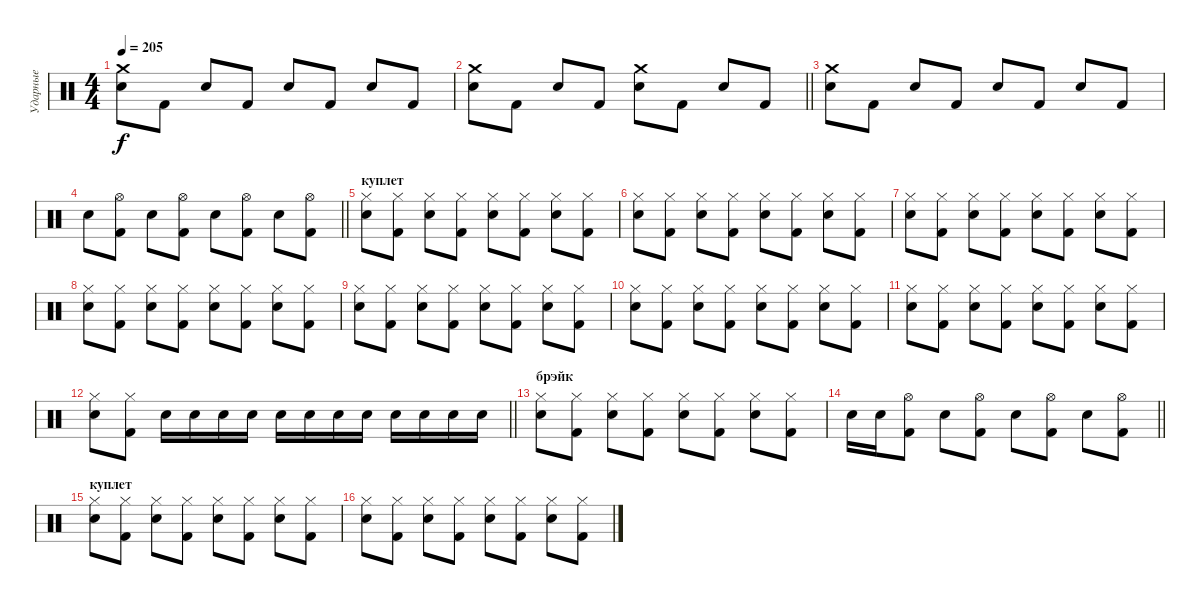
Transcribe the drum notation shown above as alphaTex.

\track ("Ударные" "Ударные") {instrument percussion}
\staff {score}
\articulation defaults
\ts (4 4)
\tempo 205
\clef neutral
\ks c
("Electric Snare (hit)" "Crash medium (hit)").8{dy f} "Kick (hit) 2".8 "Electric Snare (hit)".8 "Kick (hit) 2".8 "Electric Snare (hit)".8 "Kick (hit) 2".8 "Electric Snare (hit)".8 "Kick (hit) 2".8 |
\barLineRight lightlight
("Electric Snare (hit)" "Crash medium (hit)").8 "Kick (hit) 2".8 "Electric Snare (hit)".8 "Kick (hit) 2".8 ("Electric Snare (hit)" "Crash medium (hit)").8 "Kick (hit) 2".8 "Electric Snare (hit)".8 "Kick (hit) 2".8 |
("Electric Snare (hit)" "Crash medium (hit)").8 "Kick (hit) 2".8 "Electric Snare (hit)".8 "Kick (hit) 2".8 "Electric Snare (hit)".8 "Kick (hit) 2".8 "Electric Snare (hit)".8 "Kick (hit) 2".8 |
\barLineRight lightlight "Electric Snare (hit)".8
("Kick (hit) 2" "Hi-Hat (open)").8 "Electric Snare (hit)".8 ("Kick (hit) 2" "Hi-Hat (open)").8 "Electric Snare (hit)".8 ("Kick (hit) 2" "Hi-Hat (open)").8 "Electric Snare (hit)".8 ("Kick (hit) 2" "Hi-Hat (open)").8 |
\section ("" "куплет")
("Electric Snare (hit)" "Hi-Hat (closed)").8 ("Kick (hit) 2" "Hi-Hat (closed)").8 ("Electric Snare (hit)" "Hi-Hat (closed)").8 ("Kick (hit) 2" "Hi-Hat (closed)").8 ("Electric Snare (hit)" "Hi-Hat (closed)").8 ("Kick (hit) 2" "Hi-Hat (closed)").8 ("Electric Snare (hit)" "Hi-Hat (closed)").8 ("Kick (hit) 2" "Hi-Hat (closed)").8 |
("Electric Snare (hit)" "Hi-Hat (closed)").8 ("Kick (hit) 2" "Hi-Hat (closed)").8 ("Electric Snare (hit)" "Hi-Hat (closed)").8 ("Kick (hit) 2" "Hi-Hat (closed)").8 ("Electric Snare (hit)" "Hi-Hat (closed)").8 ("Kick (hit) 2" "Hi-Hat (closed)").8 ("Electric Snare (hit)" "Hi-Hat (closed)").8 ("Kick (hit) 2" "Hi-Hat (closed)").8 |
("Electric Snare (hit)" "Hi-Hat (closed)").8 ("Kick (hit) 2" "Hi-Hat (closed)").8 ("Electric Snare (hit)" "Hi-Hat (closed)").8 ("Kick (hit) 2" "Hi-Hat (closed)").8 ("Electric Snare (hit)" "Hi-Hat (closed)").8 ("Kick (hit) 2" "Hi-Hat (closed)").8 ("Electric Snare (hit)" "Hi-Hat (closed)").8 ("Kick (hit) 2" "Hi-Hat (closed)").8 |
("Electric Snare (hit)" "Hi-Hat (closed)").8 ("Kick (hit) 2" "Hi-Hat (closed)").8 ("Electric Snare (hit)" "Hi-Hat (closed)").8 ("Kick (hit) 2" "Hi-Hat (closed)").8 ("Electric Snare (hit)" "Hi-Hat (closed)").8 ("Kick (hit) 2" "Hi-Hat (closed)").8 ("Electric Snare (hit)" "Hi-Hat (closed)").8 ("Kick (hit) 2" "Hi-Hat (closed)").8 |
("Electric Snare (hit)" "Hi-Hat (closed)").8 ("Kick (hit) 2" "Hi-Hat (closed)").8 ("Electric Snare (hit)" "Hi-Hat (closed)").8 ("Kick (hit) 2" "Hi-Hat (closed)").8 ("Electric Snare (hit)" "Hi-Hat (closed)").8 ("Kick (hit) 2" "Hi-Hat (closed)").8 ("Electric Snare (hit)" "Hi-Hat (closed)").8 ("Kick (hit) 2" "Hi-Hat (closed)").8 |
("Electric Snare (hit)" "Hi-Hat (closed)").8 ("Kick (hit) 2" "Hi-Hat (closed)").8 ("Electric Snare (hit)" "Hi-Hat (closed)").8 ("Kick (hit) 2" "Hi-Hat (closed)").8 ("Electric Snare (hit)" "Hi-Hat (closed)").8 ("Kick (hit) 2" "Hi-Hat (closed)").8 ("Electric Snare (hit)" "Hi-Hat (closed)").8 ("Kick (hit) 2" "Hi-Hat (closed)").8 |
("Electric Snare (hit)" "Hi-Hat (closed)").8 ("Kick (hit) 2" "Hi-Hat (closed)").8 ("Electric Snare (hit)" "Hi-Hat (closed)").8 ("Kick (hit) 2" "Hi-Hat (closed)").8 ("Electric Snare (hit)" "Hi-Hat (closed)").8 ("Kick (hit) 2" "Hi-Hat (closed)").8 ("Electric Snare (hit)" "Hi-Hat (closed)").8 ("Kick (hit) 2" "Hi-Hat (closed)").8 |
\barLineRight lightlight
("Electric Snare (hit)" "Hi-Hat (closed)").8 ("Kick (hit) 2" "Hi-Hat (closed)").8 "Electric Snare (hit)".16 "Snare (hit) 2".16 "Electric Snare (hit)".16 "Snare (hit) 2".16 "Electric Snare (hit)".16 "Snare (hit) 2".16 "Electric Snare (hit)".16 "Snare (hit) 2".16 "Snare (hit)".16 "Snare (hit) 2".16 "Electric Snare (hit)".16 "Snare (hit) 2".16 |
\section ("" "брэйк")
("Electric Snare (hit)" "Hi-Hat (closed)").8 ("Kick (hit) 2" "Hi-Hat (closed)").8 ("Electric Snare (hit)" "Hi-Hat (closed)").8 ("Kick (hit) 2" "Hi-Hat (closed)").8 ("Electric Snare (hit)" "Hi-Hat (closed)").8 ("Kick (hit) 2" "Hi-Hat (closed)").8 ("Electric Snare (hit)" "Hi-Hat (closed)").8 ("Kick (hit) 2" "Hi-Hat (closed)").8 |
\barLineRight lightlight "Electric Snare (hit)".16 "Snare (hit) 2".16
("Kick (hit) 2" "Hi-Hat (open)").8 "Electric Snare (hit)".8 ("Kick (hit) 2" "Hi-Hat (open)").8 "Electric Snare (hit)".8 ("Kick (hit) 2" "Hi-Hat (open)").8 "Electric Snare (hit)".8 ("Kick (hit) 2" "Hi-Hat (open)").8 |
\section ("" "куплет")
("Electric Snare (hit)" "Hi-Hat (closed)").8 ("Kick (hit) 2" "Hi-Hat (closed)").8 ("Electric Snare (hit)" "Hi-Hat (closed)").8 ("Kick (hit) 2" "Hi-Hat (closed)").8 ("Electric Snare (hit)" "Hi-Hat (closed)").8 ("Kick (hit) 2" "Hi-Hat (closed)").8 ("Electric Snare (hit)" "Hi-Hat (closed)").8 ("Kick (hit) 2" "Hi-Hat (closed)").8 |
("Electric Snare (hit)" "Hi-Hat (closed)").8 ("Kick (hit) 2" "Hi-Hat (closed)").8 ("Electric Snare (hit)" "Hi-Hat (closed)").8 ("Kick (hit) 2" "Hi-Hat (closed)").8 ("Electric Snare (hit)" "Hi-Hat (closed)").8 ("Kick (hit) 2" "Hi-Hat (closed)").8 ("Electric Snare (hit)" "Hi-Hat (closed)").8 ("Kick (hit) 2" "Hi-Hat (closed)").8
